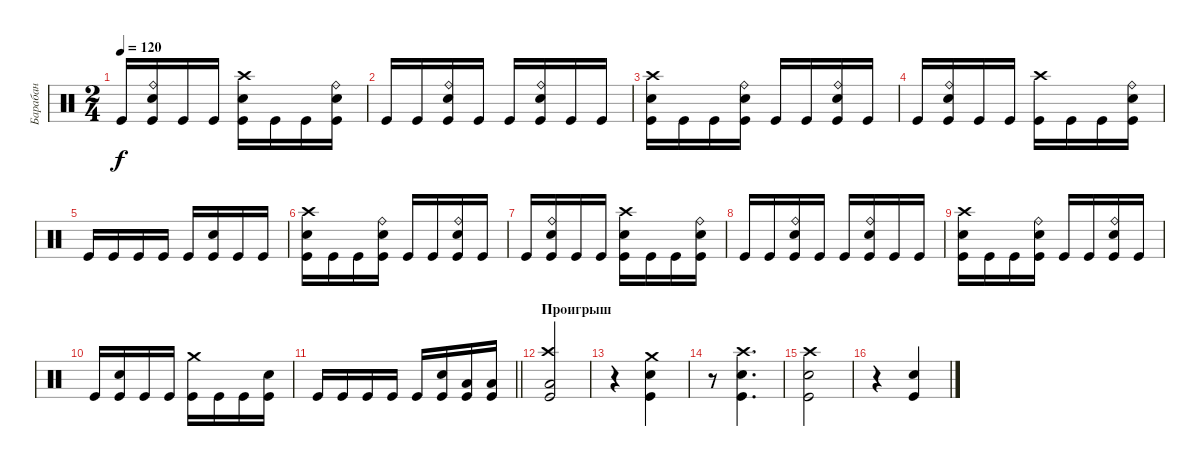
\track ("Барабан" "Барабан") {instrument percussion}
\staff {score}
\articulation defaults
\ts (2 4)
\tempo 120
\clef neutral
\ks c "Kick (hit)".16{dy f}
("Ride (bell)" "Electric Snare (hit)" "Kick (hit)").16 "Kick (hit)".16 "Kick (hit)".16 ("Crash high (hit)" "Electric Snare (hit)" "Kick (hit)").16 "Kick (hit)".16 "Kick (hit)".16 ("Ride (bell)" "Electric Snare (hit)" "Kick (hit)").16 |
"Kick (hit)".16 "Kick (hit)".16 ("Ride (bell)" "Electric Snare (hit)" "Kick (hit)").16 "Kick (hit)".16 "Kick (hit)".16 ("Ride (bell)" "Electric Snare (hit)" "Kick (hit)").16 "Kick (hit)".16 "Kick (hit)".16 |
("Crash high (hit)" "Electric Snare (hit)" "Kick (hit)").16 "Kick (hit)".16 "Kick (hit)".16 ("Ride (bell)" "Electric Snare (hit)" "Kick (hit)").16 "Kick (hit)".16 "Kick (hit)".16 ("Ride (bell)" "Electric Snare (hit)" "Kick (hit)").16 "Kick (hit)".16 |
"Kick (hit)".16 ("Ride (bell)" "Electric Snare (hit)" "Kick (hit)").16 "Kick (hit)".16 "Kick (hit)".16 ("Crash high (hit)" "Kick (hit)").16 "Kick (hit)".16 "Kick (hit)".16 ("Ride (bell)" "Electric Snare (hit)" "Kick (hit)").16 |
"Kick (hit)".16 "Kick (hit)".16 "Kick (hit)".16 "Kick (hit)".16 "Kick (hit)".16 ("Electric Snare (hit)" "Kick (hit)").16 "Kick (hit)".16 "Kick (hit)".16 |
("Crash high (hit)" "Electric Snare (hit)" "Kick (hit)").16 "Kick (hit)".16 "Kick (hit)".16 ("Ride (bell)" "Electric Snare (hit)" "Kick (hit)").16 "Kick (hit)".16 "Kick (hit)".16 ("Ride (bell)" "Electric Snare (hit)" "Kick (hit)").16 "Kick (hit)".16 |
"Kick (hit)".16 ("Ride (bell)" "Electric Snare (hit)" "Kick (hit)").16 "Kick (hit)".16 "Kick (hit)".16 ("Crash high (hit)" "Electric Snare (hit)" "Kick (hit)").16 "Kick (hit)".16 "Kick (hit)".16 ("Ride (bell)" "Electric Snare (hit)" "Kick (hit)").16 |
"Kick (hit)".16 "Kick (hit)".16 ("Ride (bell)" "Electric Snare (hit)" "Kick (hit)").16 "Kick (hit)".16 "Kick (hit)".16 ("Ride (bell)" "Electric Snare (hit)" "Kick (hit)").16 "Kick (hit)".16 "Kick (hit)".16 |
("Crash high (hit)" "Electric Snare (hit)" "Kick (hit)").16 "Kick (hit)".16 "Kick (hit)".16 ("Ride (bell)" "Electric Snare (hit)" "Kick (hit)").16 "Kick (hit)".16 "Kick (hit)".16 ("Ride (bell)" "Electric Snare (hit)" "Kick (hit)").16 "Kick (hit)".16 |
"Kick (hit)".16 ("Electric Snare (hit)" "Kick (hit)").16 "Kick (hit)".16 "Kick (hit)".16 ("Crash medium (hit)" "Kick (hit)").16 "Kick (hit)".16 "Kick (hit)".16 ("Electric Snare (hit)" "Kick (hit)").16 |
\barLineRight lightlight "Kick (hit)".16 "Kick (hit)".16 "Kick (hit)".16 "Kick (hit)".16 "Kick (hit)".16
("Electric Snare (hit)" "Kick (hit)").16 ("Low Tom (hit)" "Kick (hit)").16 ("Low Tom (hit)" "Kick (hit)").16 |
\section ("" "Проигрыш")
("Crash high (hit)" "Low Tom (hit)" "Kick (hit)").2 |
r.4 ("Crash medium (hit)" "Electric Snare (hit)" "Kick (hit)").4 |
r.8 ("Crash high (hit)" "Electric Snare (hit)" "Kick (hit)").4{d} |
("Crash high (hit)" "Electric Snare (hit)" "Kick (hit)").2 |
r.4 ("Electric Snare (hit)" "Kick (hit)").4
